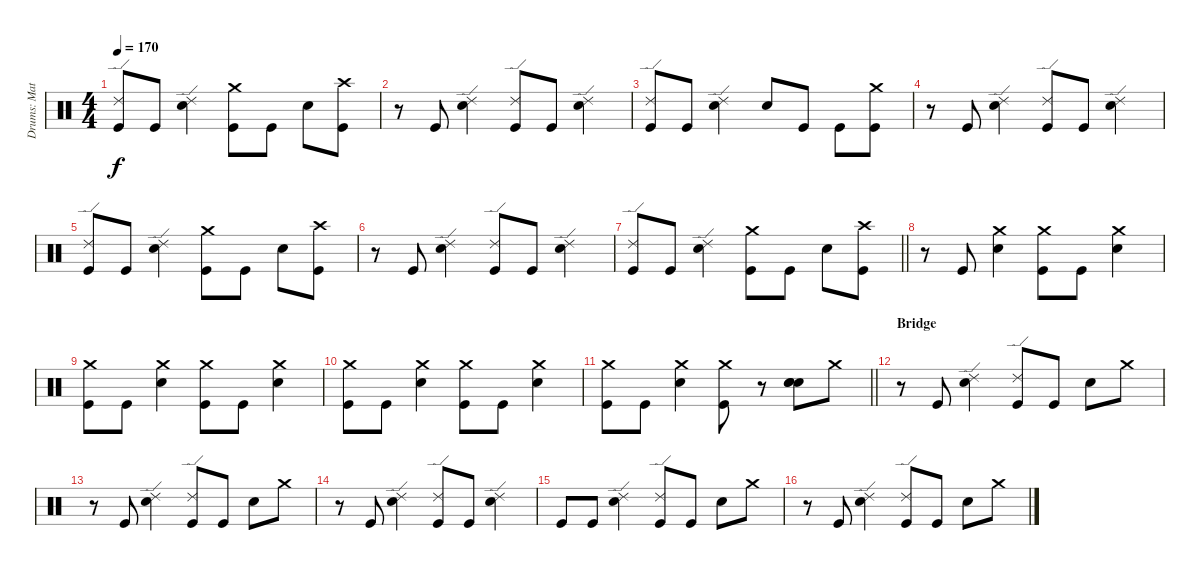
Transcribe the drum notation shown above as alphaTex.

\track ("Drums: Matt" "Drums: Mat") {solo instrument percussion}
\staff {score}
\articulation defaults
\ts (4 4)
\tempo 170
\clef neutral
\ks c
("Ride (edge) 2" "Kick (hit)").8{dy f} "Kick (hit)".8 ("Snare (hit) 2" "Ride (edge) 2").4 ("Kick (hit)" "Crash medium (hit)").8 "Kick (hit)".8 "Snare (hit) 2".8 ("Kick (hit)" "Crash high (hit)").8 |
r.8 "Kick (hit)".8 ("Ride (edge) 2" "Snare (hit) 2").4 ("Kick (hit)" "Ride (edge) 2").8 "Kick (hit)".8 ("Snare (hit) 2" "Ride (edge) 2").4 |
("Ride (edge) 2" "Kick (hit)").8 "Kick (hit)".8 ("Snare (hit) 2" "Ride (edge) 2").4 "Snare (hit) 2".8 "Kick (hit)".8 "Kick (hit)".8 ("Crash medium (hit)" "Kick (hit)").8 |
r.8 "Kick (hit)".8 ("Ride (edge) 2" "Snare (hit) 2").4 ("Kick (hit)" "Ride (edge) 2").8 "Kick (hit)".8 ("Snare (hit) 2" "Ride (edge) 2").4 |
("Ride (edge) 2" "Kick (hit)").8 "Kick (hit)".8 ("Snare (hit) 2" "Ride (edge) 2").4 ("Crash medium (hit)" "Kick (hit)").8 "Kick (hit)".8 "Snare (hit) 2".8 ("Kick (hit)" "Crash high (hit)").8 |
r.8 "Kick (hit)".8 ("Snare (hit) 2" "Ride (edge) 2").4 ("Kick (hit)" "Ride (edge) 2").8 "Kick (hit)".8 ("Ride (edge) 2" "Snare (hit) 2").4 |
\barLineRight lightlight
("Kick (hit)" "Ride (edge) 2").8 "Kick (hit)".8 ("Ride (edge) 2" "Snare (hit) 2").4 ("Crash medium (hit)" "Kick (hit)").8 "Kick (hit)".8 "Snare (hit) 2".8 ("Kick (hit)" "Crash high (hit)").8 |
r.8 "Kick (hit)".8 ("Snare (hit) 2" "Crash medium (hit)").4 ("Kick (hit)" "Crash medium (hit)").8 "Kick (hit)".8 ("Crash medium (hit)" "Snare (hit) 2").4 |
("Crash medium (hit)" "Kick (hit)").8 "Kick (hit)".8 ("Snare (hit) 2" "Crash medium (hit)").4 ("Crash medium (hit)" "Kick (hit)").8 "Kick (hit)".8 ("Crash medium (hit)" "Snare (hit) 2").4 |
("Crash medium (hit)" "Kick (hit)").8 "Kick (hit)".8 ("Snare (hit) 2" "Crash medium (hit)").4 ("Kick (hit)" "Crash medium (hit)").8 "Kick (hit)".8 ("Snare (hit) 2" "Crash medium (hit)").4 |
\barLineRight lightlight
("Kick (hit)" "Crash medium (hit)").8 "Kick (hit)".8 ("Snare (hit) 2" "Crash medium (hit)").4 ("Crash medium (hit)" "Kick (hit)").8 r.8 ("Snare (hit) 2" "Snare (hit) 2" "Snare (hit) 2").8 "Crash medium (hit)".8 |
\section ("" "Bridge")
r.8 "Kick (hit)".8 ("Snare (hit) 2" "Ride (edge) 2").4 ("Ride (edge) 2" "Kick (hit)").8 "Kick (hit)".8 "Snare (hit) 2".8 "Crash medium (hit)".8 |
r.8 "Kick (hit)".8 ("Ride (edge) 2" "Snare (hit) 2").4 ("Ride (edge) 2" "Kick (hit)").8 "Kick (hit)".8 "Snare (hit) 2".8 "Crash medium (hit)".8 |
r.8 "Kick (hit)".8 ("Ride (edge) 2" "Snare (hit) 2").4 ("Ride (edge) 2" "Kick (hit)").8 "Kick (hit)".8 ("Snare (hit) 2" "Ride (edge) 2").4 |
"Kick (hit)".8 "Kick (hit)".8 ("Ride (edge) 2" "Snare (hit) 2").4 ("Ride (edge) 2" "Kick (hit)").8 "Kick (hit)".8 "Snare (hit) 2".8 "Crash medium (hit)".8 |
r.8 "Kick (hit)".8 ("Snare (hit) 2" "Ride (edge) 2").4 ("Kick (hit)" "Ride (edge) 2").8 "Kick (hit)".8 "Snare (hit) 2".8 "Crash medium (hit)".8
